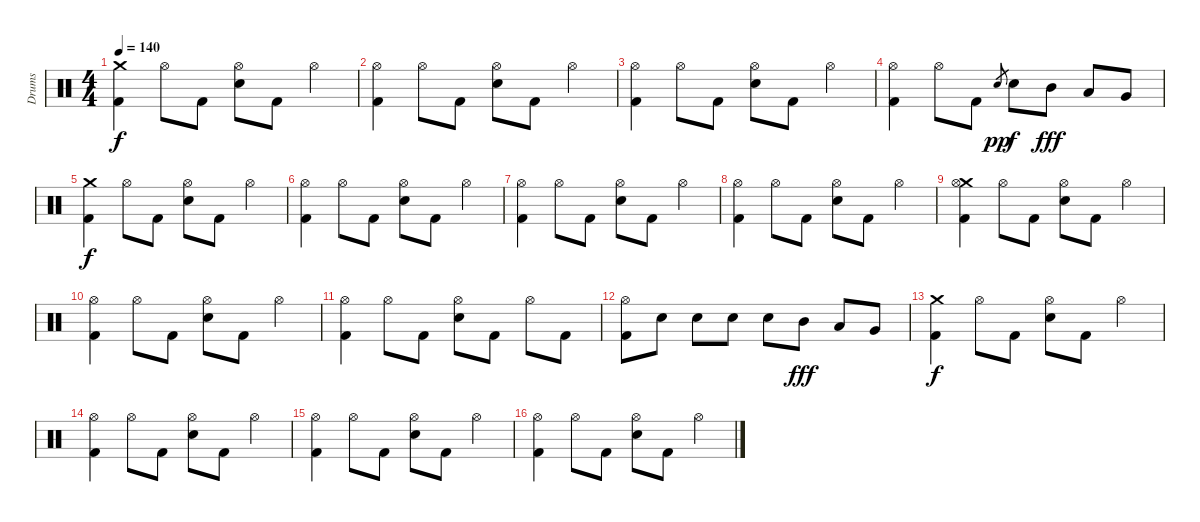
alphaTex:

\track ("Drums" "Drums") {instrument percussion}
\staff {score}
\articulation defaults
\ts (4 4)
\tempo 140
\clef neutral
\ks c
("Kick (hit) 2" "Crash medium (hit)").4{dy f} "Hi-Hat (open)".8 "Kick (hit) 2".8 ("Hi-Hat (open)" "Snare (hit) 2").8 "Kick (hit) 2".8 "Hi-Hat (open)".4 |
("Kick (hit) 2" "Hi-Hat (open)").4 "Hi-Hat (open)".8 "Kick (hit) 2".8 ("Hi-Hat (open)" "Snare (hit) 2").8 "Kick (hit) 2".8 "Hi-Hat (open)".4 |
("Kick (hit) 2" "Hi-Hat (open)").4 "Hi-Hat (open)".8 "Kick (hit) 2".8 ("Hi-Hat (open)" "Snare (hit) 2").8 "Kick (hit) 2".8 "Hi-Hat (open)".4 |
("Kick (hit) 2" "Hi-Hat (open)").4 "Hi-Hat (open)".8 "Kick (hit) 2".8 "Snare (hit)".8{gr dy pp} "Snare (hit) 2".8{dy f} "Mid Tom (hit)".8{dy fff} "Low Tom (hit)".8 "Very Low Tom (hit)".8 |
("Kick (hit) 2" "Crash medium (hit)").4{dy f} "Hi-Hat (open)".8 "Kick (hit) 2".8 ("Hi-Hat (open)" "Snare (hit) 2").8 "Kick (hit) 2".8 "Hi-Hat (open)".4 |
("Kick (hit) 2" "Hi-Hat (open)").4 "Hi-Hat (open)".8 "Kick (hit) 2".8 ("Hi-Hat (open)" "Snare (hit) 2").8 "Kick (hit) 2".8 "Hi-Hat (open)".4 |
("Kick (hit) 2" "Hi-Hat (open)").4 "Hi-Hat (open)".8 "Kick (hit) 2".8 ("Hi-Hat (open)" "Snare (hit) 2").8 "Kick (hit) 2".8 "Hi-Hat (open)".4 |
("Kick (hit) 2" "Hi-Hat (open)").4 "Hi-Hat (open)".8 "Kick (hit) 2".8 ("Hi-Hat (open)" "Snare (hit) 2").8 "Kick (hit) 2".8 "Hi-Hat (open)".4 |
("Kick (hit) 2" "Crash medium (hit)" "Hi-Hat (open)").4 "Hi-Hat (open)".8 "Kick (hit) 2".8 ("Hi-Hat (open)" "Snare (hit) 2").8 "Kick (hit) 2".8 "Hi-Hat (open)".4 |
("Kick (hit) 2" "Hi-Hat (open)").4 "Hi-Hat (open)".8 "Kick (hit) 2".8 ("Hi-Hat (open)" "Snare (hit) 2").8 "Kick (hit) 2".8 "Hi-Hat (open)".4 |
("Kick (hit) 2" "Hi-Hat (open)").4 "Hi-Hat (open)".8 "Kick (hit) 2".8 ("Hi-Hat (open)" "Snare (hit) 2").8 "Kick (hit) 2".8 "Hi-Hat (open)".8 "Kick (hit) 2".8 |
("Kick (hit) 2" "Hi-Hat (open)").8 "Snare (hit) 2".8 "Snare (hit) 2".8 "Snare (hit) 2".8 "Snare (hit) 2".8 "Mid Tom (hit)".8{dy fff} "Low Tom (hit)".8 "Very Low Tom (hit)".8 |
("Kick (hit) 2" "Crash medium (hit)").4{dy f} "Hi-Hat (open)".8 "Kick (hit) 2".8 ("Hi-Hat (open)" "Snare (hit) 2").8 "Kick (hit) 2".8 "Hi-Hat (open)".4 |
("Kick (hit) 2" "Hi-Hat (open)").4 "Hi-Hat (open)".8 "Kick (hit) 2".8 ("Hi-Hat (open)" "Snare (hit) 2").8 "Kick (hit) 2".8 "Hi-Hat (open)".4 |
("Kick (hit) 2" "Hi-Hat (open)").4 "Hi-Hat (open)".8 "Kick (hit) 2".8 ("Hi-Hat (open)" "Snare (hit) 2").8 "Kick (hit) 2".8 "Hi-Hat (open)".4 |
("Kick (hit) 2" "Hi-Hat (open)").4 "Hi-Hat (open)".8 "Kick (hit) 2".8 ("Hi-Hat (open)" "Snare (hit) 2").8 "Kick (hit) 2".8 "Hi-Hat (open)".4
